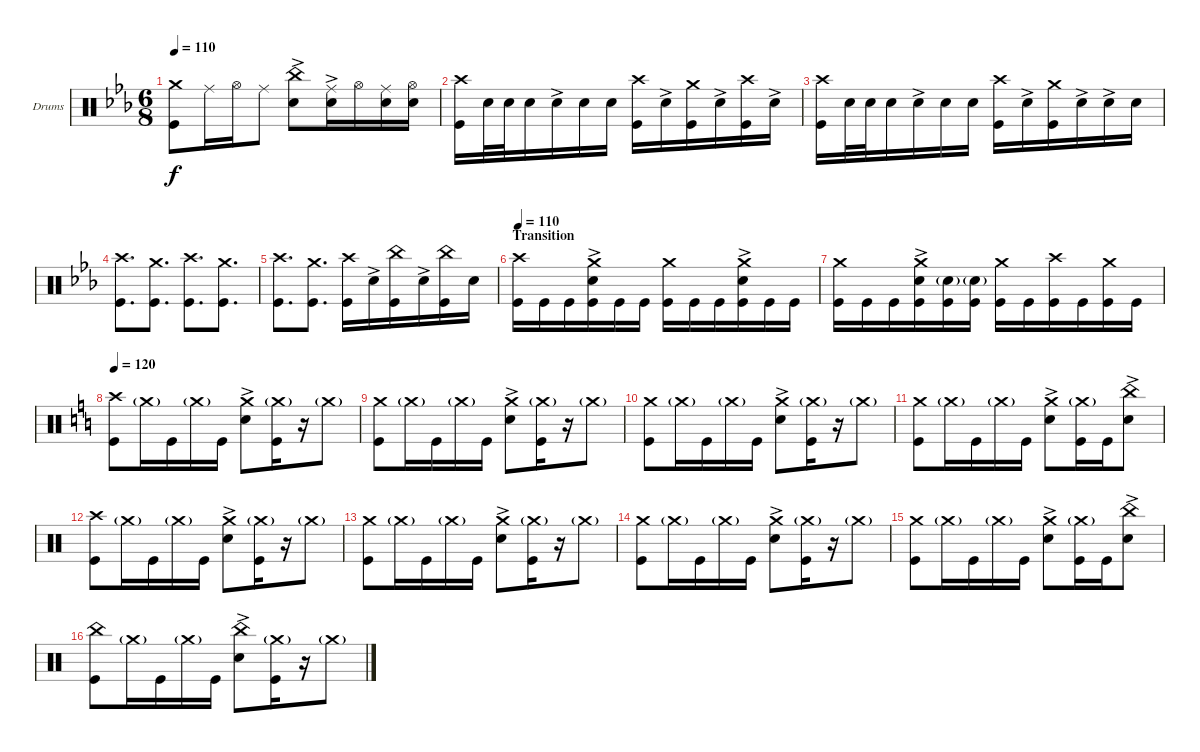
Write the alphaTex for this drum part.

\bracketExtendMode groupsimilarinstruments
\firstSystemTrackNameOrientation horizontal
\otherSystemsTrackNameOrientation horizontal
\track ("Drumkit" "Drums") {instrument percussion}
\staff {score}
\articulation defaults
\ts (6 8)
\tempo 110
\clef neutral
\ks cminor
("Kick (hit)" "Crash medium (hit)").8{dy f} "Ride (middle)".16 "Hi-Hat (open)".16 "Ride (middle)".8 ("Snare (hit) 2"{ac} "China (hit)").8 ("Ride (middle)" "Snare (hit) 2"{ac}).16 "Hi-Hat (open)".16 ("Ride (middle)" "Snare (hit) 2").16 ("Hi-Hat (open)" "Snare (hit) 2").16 |
("Kick (hit)" "Crash high (hit)").16 "Snare (hit) 2".32 "Snare (hit) 2".32 "Snare (hit) 2".16 "Snare (hit) 2"{ac}.16 "Snare (hit) 2".16 "Snare (hit) 2".16 ("Kick (hit)" "Crash high (hit)").16 "Snare (hit) 2"{ac}.16 ("Kick (hit)" "Crash medium (hit)").16 "Snare (hit) 2"{ac}.16 ("Kick (hit)" "Crash high (hit)").16 "Snare (hit) 2"{ac}.16 |
("Kick (hit)" "Crash high (hit)").16 "Snare (hit) 2".32 "Snare (hit) 2".32 "Snare (hit) 2".16 "Snare (hit) 2"{ac}.16 "Snare (hit) 2".16 "Snare (hit) 2".16 ("Kick (hit)" "Crash high (hit)").16 "Snare (hit) 2"{ac}.16 ("Kick (hit)" "Crash medium (hit)").16 "Snare (hit) 2"{ac}.16 "Snare (hit) 2"{ac}.16 "Snare (hit) 2".16 |
("Kick (hit)" "Crash high (hit)").8{d} ("Kick (hit)" "Crash medium (hit)").8{d} ("Kick (hit)" "Crash high (hit)").8{d} ("Kick (hit)" "Crash medium (hit)").8{d} |
("Kick (hit)" "Crash high (hit)").8{d} ("Kick (hit)" "Crash medium (hit)").8{d} ("Kick (hit)" "Crash high (hit)").16 "Snare (hit) 2"{ac}.16 ("Kick (hit)" "China (hit)").16 "Snare (hit) 2"{ac}.16 ("Kick (hit)" "China (hit)").16 "Snare (hit) 2".16 |
\section ("" "Transition")
\tempo 110
("Kick (hit)" "Crash high (hit)").16 "Kick (hit)".16 "Kick (hit)".16 ("Kick (hit)" "Crash medium (hit)" "Snare (hit) 2"{ac}).16 "Kick (hit)".16 "Kick (hit)".16 ("Kick (hit)" "Crash medium (hit)").16 "Kick (hit)".16 "Kick (hit)".16 ("Kick (hit)" "Crash medium (hit)" "Snare (hit) 2"{ac}).16 "Kick (hit)".16 "Kick (hit)".16 |
("Kick (hit)" "Crash medium (hit)").16 "Kick (hit)".16 "Kick (hit)".16 ("Kick (hit)" "Crash medium (hit)" "Snare (hit) 2"{ac}).16 ("Kick (hit)" "Snare (hit) 2"{g}).16 ("Kick (hit)" "Snare (hit) 2"{g}).16 ("Kick (hit)" "Crash medium (hit)").16 "Kick (hit)".16 ("Kick (hit)" "Crash high (hit)").16 "Kick (hit)".16 ("Kick (hit)" "Crash medium (hit)").16 "Kick (hit)".16 |
\tempo 120
\ks c
("Kick (hit)" "Crash high (hit)").8 "Crash medium (hit)"{g}.16 "Kick (hit)".16 "Crash medium (hit)"{g}.16 "Kick (hit)".16 ("Snare (hit) 2"{ac} "Crash medium (hit)").8 ("Kick (hit)" "Crash medium (hit)"{g}).16 r.16 "Crash medium (hit)"{g}.8 |
("Kick (hit)" "Crash medium (hit)").8 "Crash medium (hit)"{g}.16 "Kick (hit)".16 "Crash medium (hit)"{g}.16 "Kick (hit)".16 ("Snare (hit) 2"{ac} "Crash medium (hit)").8 ("Kick (hit)" "Crash medium (hit)"{g}).16 r.16 "Crash medium (hit)"{g}.8 |
("Kick (hit)" "Crash medium (hit)").8 "Crash medium (hit)"{g}.16 "Kick (hit)".16 "Crash medium (hit)"{g}.16 "Kick (hit)".16 ("Snare (hit) 2"{ac} "Crash medium (hit)").8 ("Kick (hit)" "Crash medium (hit)"{g}).16 r.16 "Crash medium (hit)"{g}.8 |
("Kick (hit)" "Crash medium (hit)").8 "Crash medium (hit)"{g}.16 "Kick (hit)".16 "Crash medium (hit)"{g}.16 "Kick (hit)".16 ("Snare (hit) 2"{ac} "Crash medium (hit)").8 ("Kick (hit)" "Crash medium (hit)"{g}).16 "Kick (hit)".16 ("Snare (hit) 2"{ac} "China (hit)").8 |
("Kick (hit)" "Crash high (hit)").8 "Crash medium (hit)"{g}.16 "Kick (hit)".16 "Crash medium (hit)"{g}.16 "Kick (hit)".16 ("Snare (hit) 2"{ac} "Crash medium (hit)").8 ("Kick (hit)" "Crash medium (hit)"{g}).16 r.16 "Crash medium (hit)"{g}.8 |
("Kick (hit)" "Crash medium (hit)").8 "Crash medium (hit)"{g}.16 "Kick (hit)".16 "Crash medium (hit)"{g}.16 "Kick (hit)".16 ("Snare (hit) 2"{ac} "Crash medium (hit)").8 ("Kick (hit)" "Crash medium (hit)"{g}).16 r.16 "Crash medium (hit)"{g}.8 |
("Kick (hit)" "Crash medium (hit)").8 "Crash medium (hit)"{g}.16 "Kick (hit)".16 "Crash medium (hit)"{g}.16 "Kick (hit)".16 ("Snare (hit) 2"{ac} "Crash medium (hit)").8 ("Kick (hit)" "Crash medium (hit)"{g}).16 r.16 "Crash medium (hit)"{g}.8 |
("Kick (hit)" "Crash medium (hit)").8 "Crash medium (hit)"{g}.16 "Kick (hit)".16 "Crash medium (hit)"{g}.16 "Kick (hit)".16 ("Snare (hit) 2"{ac} "Crash medium (hit)").8 ("Kick (hit)" "Crash medium (hit)"{g}).16 "Kick (hit)".16 ("Snare (hit) 2"{ac} "China (hit)").8 |
("Kick (hit)" "China (hit)").8 "Crash medium (hit)"{g}.16 "Kick (hit)".16 "Crash medium (hit)"{g}.16 "Kick (hit)".16 ("Snare (hit) 2"{ac} "China (hit)").8 ("Kick (hit)" "Crash medium (hit)"{g}).16 r.16 "Crash medium (hit)"{g}.8
